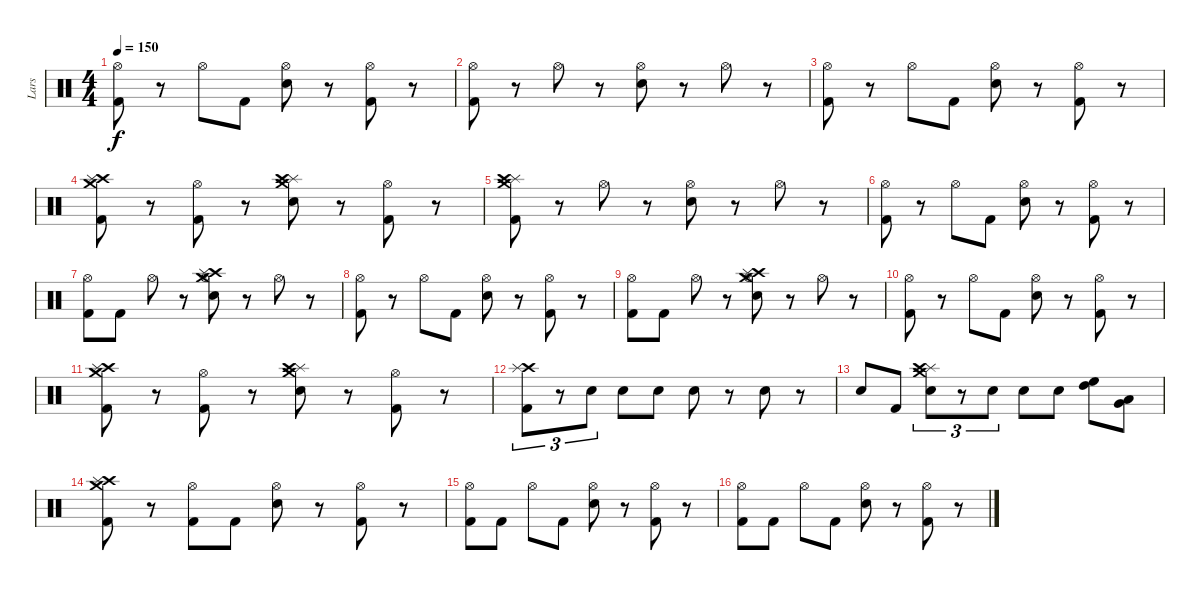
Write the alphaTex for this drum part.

\track ("Lars" "Lars") {instrument percussion}
\staff {score}
\articulation defaults
\ts (4 4)
\tempo 150
\clef neutral
\ks c
("Hi-Hat (open)" "Kick (hit) 2").8{dy f} r.8 "Hi-Hat (open)".8 "Kick (hit) 2".8 ("Hi-Hat (open)" "Snare (hit) 2").8 r.8 ("Hi-Hat (open)" "Kick (hit) 2").8 r.8 |
("Hi-Hat (open)" "Kick (hit) 2").8 r.8 "Hi-Hat (open)".8 r.8 ("Hi-Hat (open)" "Snare (hit) 2").8 r.8 "Hi-Hat (open)".8 r.8 |
("Hi-Hat (open)" "Kick (hit) 2").8 r.8 "Hi-Hat (open)".8 "Kick (hit) 2".8 ("Hi-Hat (open)" "Snare (hit) 2").8 r.8 ("Hi-Hat (open)" "Kick (hit) 2").8 r.8 |
("Crash medium (hit)" "Crash high (hit)" "Splash (hit)" "Kick (hit) 2").8 r.8 ("Kick (hit) 2" "Hi-Hat (open)").8 r.8 ("Crash medium (hit)" "Splash (hit)" "Crash high (hit)" "Snare (hit) 2").8 r.8 ("Kick (hit) 2" "Hi-Hat (open)").8 r.8 |
("Splash (hit)" "Crash medium (hit)" "Crash high (hit)" "Kick (hit) 2").8 r.8 "Hi-Hat (open)".8 r.8 ("Hi-Hat (open)" "Snare (hit) 2").8 r.8 "Hi-Hat (open)".8 r.8 |
("Hi-Hat (open)" "Kick (hit) 2").8 r.8 "Hi-Hat (open)".8 "Kick (hit) 2".8 ("Hi-Hat (open)" "Snare (hit) 2").8 r.8 ("Hi-Hat (open)" "Kick (hit) 2").8 r.8 |
("Hi-Hat (open)" "Kick (hit) 2").8 "Kick (hit) 2".8 "Hi-Hat (open)".8 r.8 ("Crash high (hit)" "Crash medium (hit)" "Splash (hit)" "Hi-Hat (open)" "Snare (hit) 2").8 r.8 "Hi-Hat (open)".8 r.8 |
("Hi-Hat (open)" "Kick (hit) 2").8 r.8 "Hi-Hat (open)".8 "Kick (hit) 2".8 ("Hi-Hat (open)" "Snare (hit) 2").8 r.8 ("Hi-Hat (open)" "Kick (hit) 2").8 r.8 |
("Hi-Hat (open)" "Kick (hit) 2").8 "Kick (hit) 2".8 "Hi-Hat (open)".8 r.8 ("Crash high (hit)" "Crash medium (hit)" "Splash (hit)" "Hi-Hat (open)" "Snare (hit) 2").8 r.8 "Hi-Hat (open)".8 r.8 |
("Hi-Hat (open)" "Kick (hit) 2").8 r.8 "Hi-Hat (open)".8 "Kick (hit) 2".8 ("Hi-Hat (open)" "Snare (hit) 2").8 r.8 ("Hi-Hat (open)" "Kick (hit) 2").8 r.8 |
("Crash medium (hit)" "Crash high (hit)" "Splash (hit)" "Kick (hit) 2").8 r.8 ("Kick (hit) 2" "Hi-Hat (open)").8 r.8 ("Crash medium (hit)" "Splash (hit)" "Crash high (hit)" "Snare (hit) 2").8 r.8 ("Kick (hit) 2" "Hi-Hat (open)").8 r.8 |
("Kick (hit) 2" "Crash high (hit)" "Splash (hit)").8{tu (3 2)} r.8{tu (3 2)} "Snare (hit) 2".8{tu (3 2)} "Snare (hit) 2".8 "Snare (hit) 2".8 "Snare (hit) 2".8 r.8 "Snare (hit) 2".8 r.8 |
"Snare (hit) 2".8 "Kick (hit) 2".8 ("Crash medium (hit)" "Splash (hit)" "Crash high (hit)" "Snare (hit) 2").8{tu (3 2)} r.8{tu (3 2)} "Snare (hit) 2".8{tu (3 2)} "Snare (hit) 2".8 "Snare (hit) 2".8 ("High Tom (hit)" "High Floor Tom (hit)").8 ("Very Low Tom (hit)" "Low Tom (hit)").8 |
("Crash high (hit)" "Splash (hit)" "Crash medium (hit)" "Kick (hit) 2").8 r.8 ("Hi-Hat (open)" "Kick (hit) 2").8 "Kick (hit) 2".8 ("Hi-Hat (open)" "Snare (hit) 2").8 r.8 ("Hi-Hat (open)" "Kick (hit) 2").8 r.8 |
("Hi-Hat (open)" "Kick (hit) 2").8 "Kick (hit) 2".8 "Hi-Hat (open)".8 "Kick (hit) 2".8 ("Hi-Hat (open)" "Snare (hit) 2").8 r.8 ("Hi-Hat (open)" "Kick (hit) 2").8 r.8 |
("Hi-Hat (open)" "Kick (hit) 2").8 "Kick (hit) 2".8 "Hi-Hat (open)".8 "Kick (hit) 2".8 ("Hi-Hat (open)" "Snare (hit) 2").8 r.8 ("Hi-Hat (open)" "Kick (hit) 2").8 r.8
